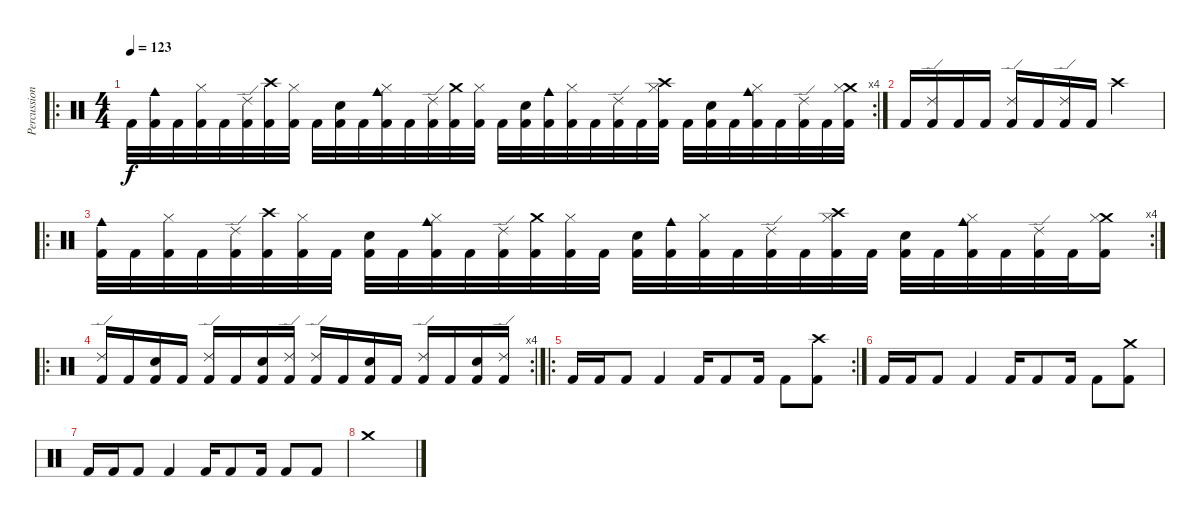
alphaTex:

\track ("Percussion" "Percussion") {instrument percussion}
\staff {score}
\articulation defaults
\ro
\rc 4
\ts (4 4)
\tempo 123
\clef neutral
\ks c "Kick (hit) 2".32{dy f}
("Cowbell medium (hit)" "Kick (hit) 2").32 "Kick (hit) 2".32 ("Hi-Hat (closed)" "Kick (hit) 2").32 "Kick (hit) 2".32 ("Ride (edge) 2" "Kick (hit) 2").32 ("Crash high (hit)" "Kick (hit) 2").32 ("Hi-Hat (closed)" "Kick (hit) 2").32 "Kick (hit) 2".32 ("Electric Snare (hit)" "Kick (hit) 2").32 "Kick (hit) 2".32 ("Cowbell medium (hit)" "Hi-Hat (closed)" "Kick (hit) 2").32 "Kick (hit) 2".32 ("Ride (edge) 2" "Kick (hit) 2").32 ("Crash medium (hit)" "Kick (hit) 2").32 ("Hi-Hat (closed)" "Kick (hit) 2").32 "Kick (hit) 2".32 ("Electric Snare (hit)" "Kick (hit) 2").32 ("Cowbell medium (hit)" "Kick (hit) 2").32 ("Hi-Hat (closed)" "Kick (hit) 2").32 "Kick (hit) 2".32 ("Ride (edge) 2" "Kick (hit) 2").32 "Kick (hit) 2".32 ("Crash high (hit)" "Hi-Hat (closed)" "Kick (hit) 2").32 "Kick (hit) 2".32 ("Electric Snare (hit)" "Kick (hit) 2").32 "Kick (hit) 2".32 ("Cowbell medium (hit)" "Hi-Hat (closed)" "Kick (hit) 2").32 "Kick (hit) 2".32 ("Ride (edge) 2" "Kick (hit) 2").32 "Kick (hit) 2".32 ("Crash medium (hit)" "Hi-Hat (closed)" "Kick (hit) 2").32 |
"Kick (hit) 2".16 ("Ride (edge) 2" "Kick (hit) 2").16 "Kick (hit) 2".16 "Kick (hit) 2".16 ("Ride (edge) 2" "Kick (hit) 2").16 "Kick (hit) 2".16 ("Ride (edge) 2" "Kick (hit) 2").16 "Kick (hit) 2".16 "Crash high (hit)".2 |
\ro
\rc 4
("Cowbell medium (hit)" "Kick (hit) 2").32 "Kick (hit) 2".32 ("Hi-Hat (closed)" "Kick (hit) 2").32 "Kick (hit) 2".32 ("Ride (edge) 2" "Kick (hit) 2").32 ("Crash high (hit)" "Kick (hit) 2").32 ("Hi-Hat (closed)" "Kick (hit) 2").32 "Kick (hit) 2".32 ("Electric Snare (hit)" "Kick (hit) 2").32 "Kick (hit) 2".32 ("Cowbell medium (hit)" "Hi-Hat (closed)" "Kick (hit) 2").32 "Kick (hit) 2".32 ("Ride (edge) 2" "Kick (hit) 2").32 ("Crash medium (hit)" "Kick (hit) 2").32 ("Hi-Hat (closed)" "Kick (hit) 2").32 "Kick (hit) 2".32 ("Electric Snare (hit)" "Kick (hit) 2").32 ("Cowbell medium (hit)" "Kick (hit) 2").32 ("Hi-Hat (closed)" "Kick (hit) 2").32 "Kick (hit) 2".32 ("Ride (edge) 2" "Kick (hit) 2").32 "Kick (hit) 2".32 ("Crash high (hit)" "Hi-Hat (closed)" "Kick (hit) 2").32 "Kick (hit) 2".32 ("Electric Snare (hit)" "Kick (hit) 2").32 "Kick (hit) 2".32 ("Cowbell medium (hit)" "Hi-Hat (closed)" "Kick (hit) 2").32 "Kick (hit) 2".32 ("Ride (edge) 2" "Kick (hit) 2").32 "Kick (hit) 2".32 ("Crash medium (hit)" "Hi-Hat (closed)" "Kick (hit) 2").16 |
\ro
\rc 4
("Ride (edge) 2" "Kick (hit) 2").16 "Kick (hit) 2".16 ("Electric Snare (hit)" "Kick (hit) 2").16 "Kick (hit) 2".16 ("Ride (edge) 2" "Kick (hit) 2").16 "Kick (hit) 2".16 ("Electric Snare (hit)" "Kick (hit) 2").16 ("Ride (edge) 2" "Kick (hit) 2").16 ("Ride (edge) 2" "Kick (hit) 2").16 "Kick (hit) 2".16 ("Electric Snare (hit)" "Kick (hit) 2").16 "Kick (hit) 2".16 ("Ride (edge) 2" "Kick (hit) 2").16 "Kick (hit) 2".16 ("Electric Snare (hit)" "Kick (hit) 2").16 ("Ride (edge) 2" "Kick (hit) 2").16 |
\ro
\rc 2 "Kick (hit) 2".16 "Kick (hit) 2".16 "Kick (hit) 2".8 "Kick (hit) 2".4 "Kick (hit) 2".16 "Kick (hit) 2".8 "Kick (hit) 2".16 "Kick (hit) 2".8
("Crash high (hit)" "Kick (hit) 2").8 |
"Kick (hit) 2".16 "Kick (hit) 2".16 "Kick (hit) 2".8 "Kick (hit) 2".4 "Kick (hit) 2".16 "Kick (hit) 2".8 "Kick (hit) 2".16 "Kick (hit) 2".8 ("Crash medium (hit)" "Kick (hit) 2").8 |
"Kick (hit) 2".16 "Kick (hit) 2".16 "Kick (hit) 2".8 "Kick (hit) 2".4 "Kick (hit) 2".16 "Kick (hit) 2".8 "Kick (hit) 2".16 "Kick (hit) 2".8 "Kick (hit) 2".8 |
"Crash medium (hit)".1
